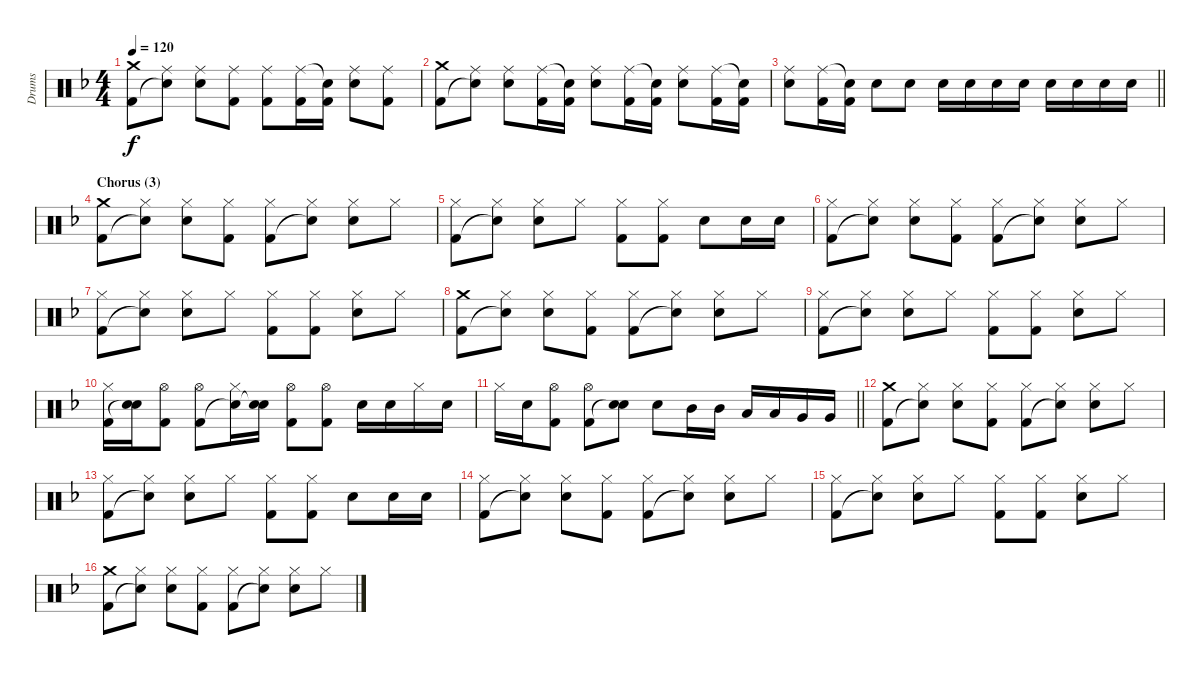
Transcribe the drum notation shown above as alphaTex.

\track ("Drums" "Drums") {instrument percussion}
\staff {score}
\articulation defaults
\ts (4 4)
\tempo 120
\clef neutral
\ks dminor
("Crash medium (hit)" "Kick (hit) 2").8{dy f} ("Ride (middle)" "Snare (hit)"{t}).8 ("Ride (middle)" "Electric Snare (hit)").8 ("Ride (middle)" "Kick (hit) 2").8 ("Ride (middle)" "Kick (hit) 2").8 ("Ride (middle)" "Kick (hit) 2").16 ("Snare (hit)"{t} "Kick (hit) 2").16 ("Ride (middle)" "Electric Snare (hit)").8 ("Ride (middle)" "Kick (hit) 2").8 |
("Crash medium (hit)" "Kick (hit) 2").8 ("Ride (middle)" "Snare (hit)"{t}).8 ("Ride (middle)" "Electric Snare (hit)").8 ("Ride (middle)" "Kick (hit) 2").16 ("Snare (hit)"{t} "Kick (hit) 2").16 ("Ride (middle)" "Electric Snare (hit)").8 ("Ride (middle)" "Kick (hit) 2").16 ("Snare (hit)"{t} "Kick (hit) 2").16 ("Ride (middle)" "Electric Snare (hit)").8 ("Ride (middle)" "Kick (hit) 2").16 ("Snare (hit)"{t} "Kick (hit) 2").16 |
\barLineRight lightlight
("Ride (middle)" "Electric Snare (hit)").8 ("Ride (middle)" "Kick (hit) 2").16 ("Snare (hit)"{t} "Kick (hit) 2").16 "Electric Snare (hit)".8 "Electric Snare (hit)".8 "Electric Snare (hit)".16 "Electric Snare (hit)".16 "Electric Snare (hit)".16 "Electric Snare (hit)".16 "Electric Snare (hit)".16 "Electric Snare (hit)".16 "Electric Snare (hit)".16 "Electric Snare (hit)".16 |
\section ("" "Chorus (3)")
("Crash medium (hit)" "Kick (hit) 2").8 ("Hi-Hat (closed)" "Snare (hit)"{t}).8 ("Hi-Hat (closed)" "Electric Snare (hit)").8 ("Hi-Hat (closed)" "Kick (hit) 2").8 ("Hi-Hat (closed)" "Kick (hit) 2").8 ("Hi-Hat (closed)" "Snare (hit)"{t}).8 ("Hi-Hat (closed)" "Electric Snare (hit)").8 "Hi-Hat (closed)".8 |
("Hi-Hat (closed)" "Kick (hit) 2").8 ("Hi-Hat (closed)" "Snare (hit)"{t}).8 ("Hi-Hat (closed)" "Electric Snare (hit)").8 "Hi-Hat (closed)".8 ("Hi-Hat (closed)" "Kick (hit) 2").8 ("Hi-Hat (closed)" "Kick (hit) 2").8 "Electric Snare (hit)".8 "Electric Snare (hit)".16 "Electric Snare (hit)".16 |
("Hi-Hat (closed)" "Kick (hit) 2").8 ("Hi-Hat (closed)" "Snare (hit)"{t}).8 ("Hi-Hat (closed)" "Electric Snare (hit)").8 ("Hi-Hat (closed)" "Kick (hit) 2").8 ("Hi-Hat (closed)" "Kick (hit) 2").8 ("Hi-Hat (closed)" "Snare (hit)"{t}).8 ("Hi-Hat (closed)" "Electric Snare (hit)").8 "Hi-Hat (closed)".8 |
("Hi-Hat (closed)" "Kick (hit) 2").8 ("Hi-Hat (closed)" "Snare (hit)"{t}).8 ("Hi-Hat (closed)" "Electric Snare (hit)").8 "Hi-Hat (closed)".8 ("Hi-Hat (closed)" "Kick (hit) 2").8 ("Hi-Hat (closed)" "Kick (hit) 2").8 ("Hi-Hat (closed)" "Electric Snare (hit)").8 "Hi-Hat (closed)".8 |
("Crash medium (hit)" "Kick (hit) 2").8 ("Hi-Hat (closed)" "Snare (hit)"{t}).8 ("Hi-Hat (closed)" "Electric Snare (hit)").8 ("Hi-Hat (closed)" "Kick (hit) 2").8 ("Hi-Hat (closed)" "Kick (hit) 2").8 ("Hi-Hat (closed)" "Snare (hit)"{t}).8 ("Hi-Hat (closed)" "Electric Snare (hit)").8 "Hi-Hat (closed)".8 |
("Hi-Hat (closed)" "Kick (hit) 2").8 ("Hi-Hat (closed)" "Snare (hit)"{t}).8 ("Hi-Hat (closed)" "Electric Snare (hit)").8 "Hi-Hat (closed)".8 ("Hi-Hat (closed)" "Kick (hit) 2").8 ("Hi-Hat (closed)" "Kick (hit) 2").8 ("Hi-Hat (closed)" "Electric Snare (hit)").8 "Hi-Hat (closed)".8 |
("Hi-Hat (closed)" "Kick (hit) 2").16 ("Electric Snare (hit)" "Snare (hit)"{t}).16 ("Hi-Hat (open)" "Kick (hit) 2").8 ("Hi-Hat (open)" "Kick (hit) 2").8 ("Hi-Hat (closed)" "Snare (hit)"{t}).16 ("Electric Snare (hit)" "Snare (hit)"{t}).16 ("Hi-Hat (open)" "Kick (hit) 2").8 ("Hi-Hat (open)" "Kick (hit) 2").8 "Electric Snare (hit)".16 "Electric Snare (hit)".16 "Hi-Hat (closed)".16 "Electric Snare (hit)".16 |
\barLineRight lightlight "Hi-Hat (closed)".16 "Electric Snare (hit)".16
("Hi-Hat (open)" "Kick (hit) 2").8 ("Hi-Hat (open)" "Kick (hit) 2").8 ("Electric Snare (hit)" "Snare (hit)"{t}).8 "Electric Snare (hit)".8 "Mid Tom (hit)".16 "Mid Tom (hit)".16 "Low Tom (hit)".16 "Low Tom (hit)".16 "Very Low Tom (hit)".16 "Very Low Tom (hit)".16 |
("Crash medium (hit)" "Kick (hit) 2").8 ("Hi-Hat (closed)" "Snare (hit)"{t}).8 ("Hi-Hat (closed)" "Electric Snare (hit)").8 ("Hi-Hat (closed)" "Kick (hit) 2").8 ("Hi-Hat (closed)" "Kick (hit) 2").8 ("Hi-Hat (closed)" "Snare (hit)"{t}).8 ("Hi-Hat (closed)" "Electric Snare (hit)").8 "Hi-Hat (closed)".8 |
("Hi-Hat (closed)" "Kick (hit) 2").8 ("Hi-Hat (closed)" "Snare (hit)"{t}).8 ("Hi-Hat (closed)" "Electric Snare (hit)").8 "Hi-Hat (closed)".8 ("Hi-Hat (closed)" "Kick (hit) 2").8 ("Hi-Hat (closed)" "Kick (hit) 2").8 "Electric Snare (hit)".8 "Electric Snare (hit)".16 "Electric Snare (hit)".16 |
("Hi-Hat (closed)" "Kick (hit) 2").8 ("Hi-Hat (closed)" "Snare (hit)"{t}).8 ("Hi-Hat (closed)" "Electric Snare (hit)").8 ("Hi-Hat (closed)" "Kick (hit) 2").8 ("Hi-Hat (closed)" "Kick (hit) 2").8 ("Hi-Hat (closed)" "Snare (hit)"{t}).8 ("Hi-Hat (closed)" "Electric Snare (hit)").8 "Hi-Hat (closed)".8 |
("Hi-Hat (closed)" "Kick (hit) 2").8 ("Hi-Hat (closed)" "Snare (hit)"{t}).8 ("Hi-Hat (closed)" "Electric Snare (hit)").8 "Hi-Hat (closed)".8 ("Hi-Hat (closed)" "Kick (hit) 2").8 ("Hi-Hat (closed)" "Kick (hit) 2").8 ("Hi-Hat (closed)" "Electric Snare (hit)").8 "Hi-Hat (closed)".8 |
("Crash medium (hit)" "Kick (hit) 2").8 ("Hi-Hat (closed)" "Snare (hit)"{t}).8 ("Hi-Hat (closed)" "Electric Snare (hit)").8 ("Hi-Hat (closed)" "Kick (hit) 2").8 ("Hi-Hat (closed)" "Kick (hit) 2").8 ("Hi-Hat (closed)" "Snare (hit)"{t}).8 ("Hi-Hat (closed)" "Electric Snare (hit)").8 "Hi-Hat (closed)".8
